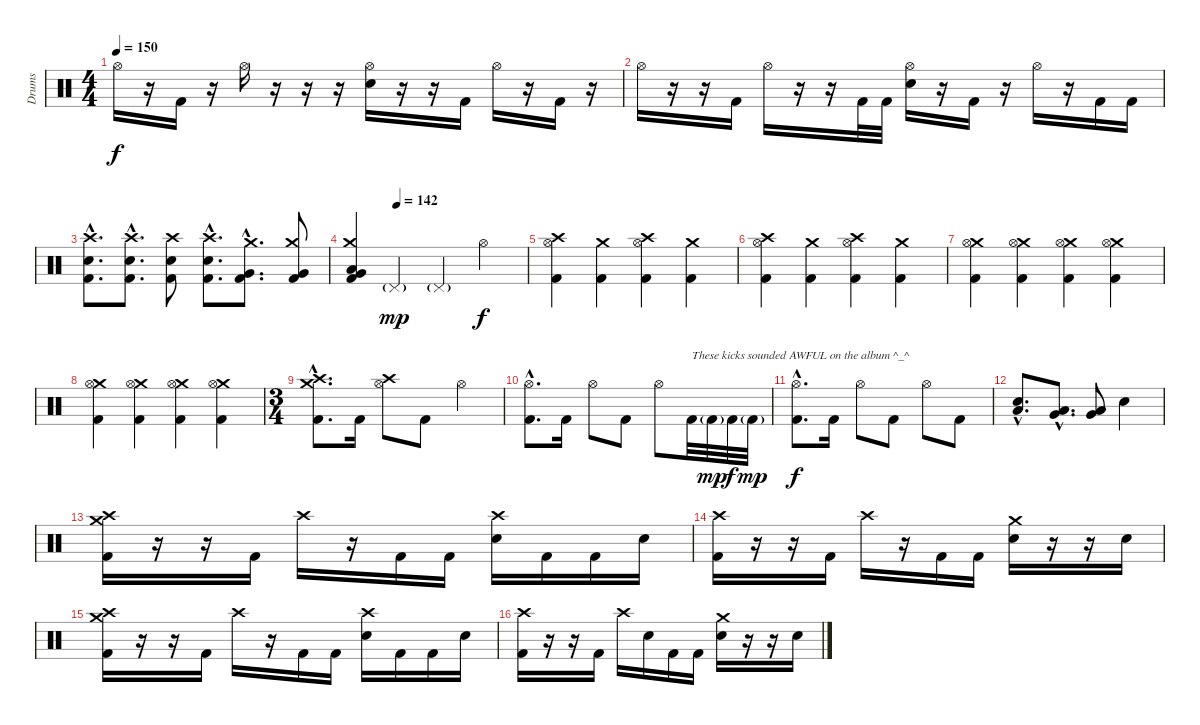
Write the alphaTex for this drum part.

\track ("Drums" "Drums") {instrument percussion}
\staff {score}
\articulation defaults
\ts (4 4)
\tempo 150
\clef neutral
\ks c "Hi-Hat (open)".16{dy f}
r.16 "Kick (hit) 2".16 r.16 "Hi-Hat (open)".16 r.16 r.16 r.16 ("Hi-Hat (open)" "Snare (hit) 2").16 r.16 r.16 "Kick (hit) 2".16 "Hi-Hat (open)".16 r.16 "Kick (hit) 2".16 r.16 |
"Hi-Hat (open)".16 r.16 r.16 "Kick (hit) 2".16 "Hi-Hat (open)".16 r.16 r.16 "Kick (hit) 2".32 "Kick (hit) 2".32 ("Hi-Hat (open)" "Snare (hit) 2").16 r.16 "Kick (hit) 2".16 r.16 "Hi-Hat (open)".16 r.16 "Kick (hit) 2".16 "Kick (hit) 2".16 |
("Crash high (hit)"{hac} "Snare (hit) 2"{hac} "Kick (hit) 2"{hac}).8{d} ("Crash high (hit)"{hac} "Snare (hit) 2"{hac} "Kick (hit) 2"{hac}).8{d} ("Crash high (hit)" "Snare (hit) 2" "Kick (hit) 2").8 ("Crash high (hit)"{hac} "Snare (hit) 2"{hac} "Kick (hit) 2"{hac}).8{d} ("Crash medium (hit)"{hac} "Very Low Tom (hit)"{hac} "Kick (hit) 2"{hac}).8{d} ("Crash medium (hit)" "Very Low Tom (hit)" "Kick (hit) 2").8 |
\tempo (142 0.25)
("Crash medium (hit)" "Low Tom (hit)" "Very Low Tom (hit)" "Kick (hit) 2").4 "Pedal Hi-Hat (hit)"{g}.4{dy mp} "Pedal Hi-Hat (hit)"{g}.4 "Hi-Hat (open)".4{dy f} |
("Hi-Hat (open)" "Crash high (hit)" "Kick (hit) 2").4 ("Crash medium (hit)" "Kick (hit) 2").4 ("Hi-Hat (open)" "Crash high (hit)" "Kick (hit) 2").4 ("Crash medium (hit)" "Kick (hit) 2").4 |
("Hi-Hat (open)" "Crash high (hit)" "Kick (hit) 2").4 ("Crash medium (hit)" "Kick (hit) 2").4 ("Hi-Hat (open)" "Crash high (hit)" "Kick (hit) 2").4 ("Crash medium (hit)" "Kick (hit) 2").4 |
("Crash medium (hit)" "Hi-Hat (open)" "Kick (hit) 2").4 ("Crash medium (hit)" "Hi-Hat (open)" "Kick (hit) 2").4 ("Crash medium (hit)" "Hi-Hat (open)" "Kick (hit) 2").4 ("Crash medium (hit)" "Hi-Hat (open)" "Kick (hit) 2").4 |
("Crash medium (hit)" "Hi-Hat (open)" "Kick (hit) 2").4 ("Crash medium (hit)" "Hi-Hat (open)" "Kick (hit) 2").4 ("Crash medium (hit)" "Hi-Hat (open)" "Kick (hit) 2").4 ("Crash medium (hit)" "Hi-Hat (open)" "Kick (hit) 2").4 |
\ts (3 4)
("Crash medium (hit)"{hac} "Crash high (hit)"{hac} "Kick (hit) 2"{hac}).8{d} "Kick (hit) 2".16 ("Crash high (hit)" "Hi-Hat (open)").8 "Kick (hit) 2".8 "Hi-Hat (open)".4 |
("Hi-Hat (open)"{hac} "Kick (hit) 2"{hac}).8{d} "Kick (hit) 2".16 "Hi-Hat (open)".8 "Kick (hit) 2".8 "Hi-Hat (open)".8 "Kick (hit) 2".32{txt "These kicks sounded AWFUL on the album ^_^"} "Kick (hit) 2"{g}.32{dy mp} "Kick (hit) 2".32{dy f} "Kick (hit) 2"{g}.32{dy mp} |
("Hi-Hat (open)"{hac} "Kick (hit) 2"{hac}).8{d dy f} "Kick (hit) 2".16 "Hi-Hat (open)".8 "Kick (hit) 2".8 "Hi-Hat (open)".8 "Kick (hit) 2".8 |
("Low Tom (hit)"{hac} "Snare (hit) 2"{hac}).8{d} ("Very Low Tom (hit)"{hac} "Low Tom (hit)"{hac}).8{d} ("Low Floor Tom (hit)" "Very Low Tom (hit)").8 "Snare (hit) 2".4 |
("Crash medium (hit)" "Crash high (hit)" "Kick (hit) 2").16 r.16 r.16 "Kick (hit) 2".16 "Crash high (hit)".16 r.16 "Kick (hit) 2".16 "Kick (hit) 2".16 ("Crash high (hit)" "Snare (hit) 2").16 "Kick (hit) 2".16 "Kick (hit) 2".16 "Snare (hit) 2".16 |
("Crash high (hit)" "Kick (hit) 2").16 r.16 r.16 "Kick (hit) 2".16 "Crash high (hit)".16 r.16 "Kick (hit) 2".16 "Kick (hit) 2".16 ("Crash medium (hit)" "Snare (hit) 2").16 r.16 r.16 "Snare (hit) 2".16 |
("Crash high (hit)" "Crash medium (hit)" "Kick (hit) 2").16 r.16 r.16 "Kick (hit) 2".16 "Crash high (hit)".16 r.16 "Kick (hit) 2".16 "Kick (hit) 2".16 ("Crash high (hit)" "Snare (hit) 2").16 "Kick (hit) 2".16 "Kick (hit) 2".16 "Snare (hit) 2".16 |
("Crash high (hit)" "Kick (hit) 2").16 r.16 r.16 "Kick (hit) 2".16 "Crash high (hit)".16 "Snare (hit) 2".16 "Kick (hit) 2".16 "Kick (hit) 2".16 ("Crash medium (hit)" "Snare (hit) 2").16 r.16 r.16 "Snare (hit) 2".16
